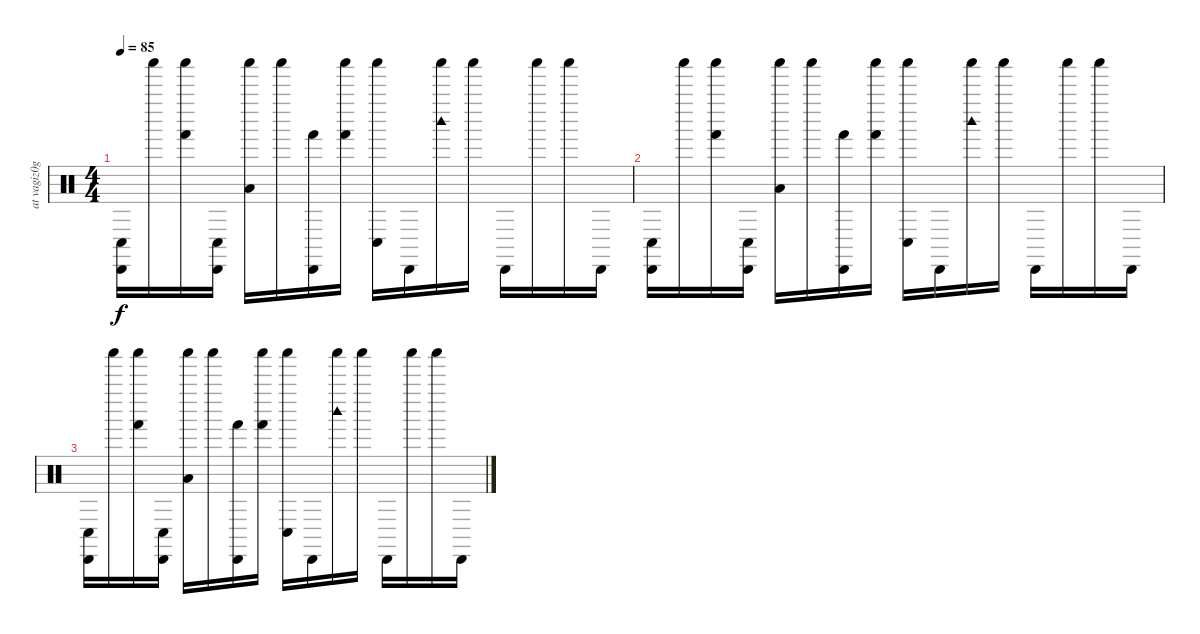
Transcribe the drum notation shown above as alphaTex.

\track ("at vagiz0g@mail.ru" "at vagiz0g") {instrument percussion}
\staff {score}
\articulation defaults
\ts (4 4)
\tempo 85
\clef neutral
\ks c
("Cabasa (hit)" "Conga low (hit)").16{dy f} "Shaker (hit)".16 ("Shaker (hit)" "Hand (hit)").16 ("Cabasa (hit)" "Conga low (hit)").16 ("Shaker (hit)" "Low Tom (hit)").16 "Shaker (hit)".16 ("Cabasa (hit)" "Hand (hit)").16 ("Shaker (hit)" "Hand (hit)").16 ("Shaker (hit)" "Conga low (hit)").16 "Cabasa (hit)".16 ("Shaker (hit)" "Woodblock high (hit)").16 "Shaker (hit)".16 "Cabasa (hit)".16 "Shaker (hit)".16 "Shaker (hit)".16 "Cabasa (hit)".16 |
("Cabasa (hit)" "Conga low (hit)").16 "Shaker (hit)".16 ("Shaker (hit)" "Hand (hit)").16 ("Cabasa (hit)" "Conga low (hit)").16 ("Shaker (hit)" "Low Tom (hit)").16 "Shaker (hit)".16 ("Cabasa (hit)" "Hand (hit)").16 ("Shaker (hit)" "Hand (hit)").16 ("Shaker (hit)" "Conga low (hit)").16 "Cabasa (hit)".16 ("Shaker (hit)" "Woodblock high (hit)").16 "Shaker (hit)".16 "Cabasa (hit)".16 "Shaker (hit)".16 "Shaker (hit)".16 "Cabasa (hit)".16 |
("Cabasa (hit)" "Conga low (hit)").16 "Shaker (hit)".16 ("Shaker (hit)" "Hand (hit)").16 ("Cabasa (hit)" "Conga low (hit)").16 ("Shaker (hit)" "Low Tom (hit)").16 "Shaker (hit)".16 ("Cabasa (hit)" "Hand (hit)").16 ("Shaker (hit)" "Hand (hit)").16 ("Shaker (hit)" "Conga low (hit)").16 "Cabasa (hit)".16 ("Shaker (hit)" "Woodblock high (hit)").16 "Shaker (hit)".16 "Cabasa (hit)".16 "Shaker (hit)".16 "Shaker (hit)".16 "Cabasa (hit)".16
